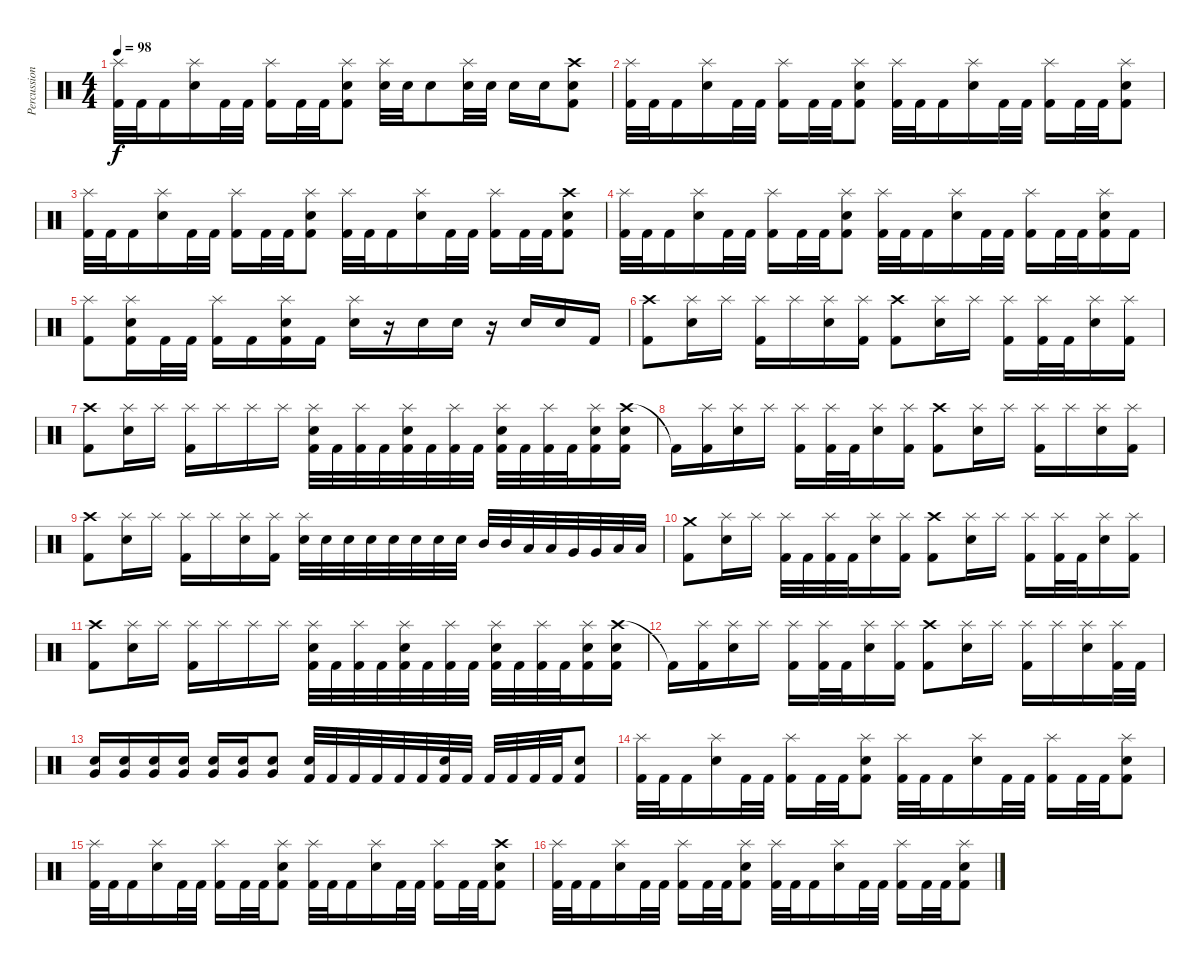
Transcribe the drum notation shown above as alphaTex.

\track ("Percussion" "Percussion") {instrument percussion}
\staff {score}
\articulation defaults
\ts (4 4)
\tempo 98
\clef neutral
\ks c
("Splash (hit)" "Kick (hit) 2").32{dy f} "Kick (hit) 2".32 "Kick (hit) 2".16 ("Splash (hit)" "Snare (hit) 2").16 "Kick (hit) 2".32 "Kick (hit) 2".32 ("Splash (hit)" "Kick (hit) 2").16 "Kick (hit) 2".32 "Kick (hit) 2".32 ("Splash (hit)" "Snare (hit) 2" "Kick (hit) 2").8 ("Splash (hit)" "Snare (hit) 2").32 "Snare (hit) 2".32 "Snare (hit) 2".8 ("Splash (hit)" "Snare (hit) 2").32 "Snare (hit) 2".32 "Snare (hit) 2".16 "Snare (hit) 2".16 ("Crash high (hit)" "Snare (hit) 2" "Kick (hit) 2").8 |
("Splash (hit)" "Kick (hit) 2").32 "Kick (hit) 2".32 "Kick (hit) 2".16 ("Splash (hit)" "Snare (hit) 2").16 "Kick (hit) 2".32 "Kick (hit) 2".32 ("Splash (hit)" "Kick (hit) 2").16 "Kick (hit) 2".32 "Kick (hit) 2".32 ("Splash (hit)" "Snare (hit) 2" "Kick (hit) 2").8 ("Splash (hit)" "Kick (hit) 2").32 "Kick (hit) 2".32 "Kick (hit) 2".16 ("Splash (hit)" "Snare (hit) 2").16 "Kick (hit) 2".32 "Kick (hit) 2".32 ("Splash (hit)" "Kick (hit) 2").16 "Kick (hit) 2".32 "Kick (hit) 2".32 ("Splash (hit)" "Snare (hit) 2" "Kick (hit) 2").8 |
("Splash (hit)" "Kick (hit) 2").32 "Kick (hit) 2".32 "Kick (hit) 2".16 ("Splash (hit)" "Snare (hit) 2").16 "Kick (hit) 2".32 "Kick (hit) 2".32 ("Splash (hit)" "Kick (hit) 2").16 "Kick (hit) 2".32 "Kick (hit) 2".32 ("Splash (hit)" "Snare (hit) 2" "Kick (hit) 2").8 ("Splash (hit)" "Kick (hit) 2").32 "Kick (hit) 2".32 "Kick (hit) 2".16 ("Splash (hit)" "Snare (hit) 2").16 "Kick (hit) 2".32 "Kick (hit) 2".32 ("Splash (hit)" "Kick (hit) 2").16 "Kick (hit) 2".32 "Kick (hit) 2".32 ("Crash high (hit)" "Snare (hit) 2" "Kick (hit) 2").8 |
("Splash (hit)" "Kick (hit) 2").32 "Kick (hit) 2".32 "Kick (hit) 2".16 ("Splash (hit)" "Snare (hit) 2").16 "Kick (hit) 2".32 "Kick (hit) 2".32 ("Splash (hit)" "Kick (hit) 2").16 "Kick (hit) 2".32 "Kick (hit) 2".32 ("Splash (hit)" "Snare (hit) 2" "Kick (hit) 2").8 ("Splash (hit)" "Kick (hit) 2").32 "Kick (hit) 2".32 "Kick (hit) 2".16 ("Splash (hit)" "Snare (hit) 2").16 "Kick (hit) 2".32 "Kick (hit) 2".32 ("Splash (hit)" "Kick (hit) 2").16 "Kick (hit) 2".32 "Kick (hit) 2".32 ("Splash (hit)" "Snare (hit) 2" "Kick (hit) 2").16 "Kick (hit) 2".16 |
("Splash (hit)" "Kick (hit) 2").8 ("Splash (hit)" "Snare (hit) 2" "Kick (hit) 2").16 "Kick (hit) 2".32 "Kick (hit) 2".32 ("Splash (hit)" "Kick (hit) 2").16 "Kick (hit) 2".16 ("Splash (hit)" "Snare (hit) 2" "Kick (hit) 2").16 "Kick (hit) 2".16 ("Splash (hit)" "Snare (hit) 2").16 r.16 "Snare (hit) 2".16 "Snare (hit) 2".16 r.16 "Snare (hit) 2".16 "Snare (hit) 2".16 "Kick (hit) 2".16 |
("Crash high (hit)" "Kick (hit) 2").8 ("Splash (hit)" "Snare (hit) 2").16 "Splash (hit)".16 ("Splash (hit)" "Kick (hit) 2").16 "Splash (hit)".16 ("Splash (hit)" "Snare (hit) 2").16 ("Splash (hit)" "Kick (hit) 2").16 ("Crash high (hit)" "Kick (hit) 2").8 ("Splash (hit)" "Snare (hit) 2").16 "Splash (hit)".16 ("Splash (hit)" "Kick (hit) 2").16 ("Splash (hit)" "Kick (hit) 2").32 "Kick (hit) 2".32 ("Splash (hit)" "Snare (hit) 2").16 ("Splash (hit)" "Kick (hit) 2").16 |
("Crash high (hit)" "Kick (hit) 2").8 ("Splash (hit)" "Snare (hit) 2").16 "Splash (hit)".16 ("Splash (hit)" "Kick (hit) 2").16 "Splash (hit)".16 "Splash (hit)".16 "Splash (hit)".16 ("Splash (hit)" "Snare (hit) 2" "Kick (hit) 2").32 "Kick (hit) 2".32 ("Splash (hit)" "Kick (hit) 2").32 "Kick (hit) 2".32 ("Splash (hit)" "Snare (hit) 2" "Kick (hit) 2").32 "Kick (hit) 2".32 ("Splash (hit)" "Kick (hit) 2").32 "Kick (hit) 2".32 ("Splash (hit)" "Snare (hit) 2" "Kick (hit) 2").32 "Kick (hit) 2".32 ("Splash (hit)" "Kick (hit) 2").32 "Kick (hit) 2".32 ("Splash (hit)" "Snare (hit) 2" "Kick (hit) 2").16 ("Crash high (hit)" "Snare (hit) 2" "Kick (hit) 2").16 |
"Kick (hit) 2"{t}.16 ("Splash (hit)" "Kick (hit) 2").16 ("Splash (hit)" "Snare (hit) 2").16 "Splash (hit)".16 ("Splash (hit)" "Kick (hit) 2").16 ("Splash (hit)" "Kick (hit) 2").32 "Kick (hit) 2".32 ("Splash (hit)" "Snare (hit) 2").16 ("Splash (hit)" "Kick (hit) 2").16 ("Crash high (hit)" "Kick (hit) 2").8 ("Splash (hit)" "Snare (hit) 2").16 "Splash (hit)".16 ("Splash (hit)" "Kick (hit) 2").16 "Splash (hit)".16 ("Splash (hit)" "Snare (hit) 2").16 ("Splash (hit)" "Kick (hit) 2").16 |
("Crash high (hit)" "Kick (hit) 2").8 ("Splash (hit)" "Snare (hit) 2").16 "Splash (hit)".16 ("Splash (hit)" "Kick (hit) 2").16 "Splash (hit)".16 ("Splash (hit)" "Snare (hit) 2").16 ("Splash (hit)" "Kick (hit) 2").16 ("Splash (hit)" "Snare (hit) 2").32 "Snare (hit) 2".32 "Snare (hit) 2".32 "Snare (hit) 2".32 "Snare (hit) 2".32 "Snare (hit) 2".32 "Snare (hit) 2".32 "Snare (hit) 2".32 "Mid Tom (hit)".32 "Mid Tom (hit)".32 "Low Tom (hit)".32 "Low Tom (hit)".32 "Very Low Tom (hit)".32 "Very Low Tom (hit)".32 "Low Floor Tom (hit)".32 "Low Floor Tom (hit)".32 |
("Crash medium (hit)" "Kick (hit) 2").8 ("Splash (hit)" "Snare (hit) 2").16 "Splash (hit)".16 ("Splash (hit)" "Kick (hit) 2").32 "Kick (hit) 2".32 ("Splash (hit)" "Kick (hit) 2").32 "Kick (hit) 2".32 ("Splash (hit)" "Snare (hit) 2").16 ("Splash (hit)" "Kick (hit) 2").16 ("Crash high (hit)" "Kick (hit) 2").8 ("Splash (hit)" "Snare (hit) 2").16 "Splash (hit)".16 ("Splash (hit)" "Kick (hit) 2").16 ("Splash (hit)" "Kick (hit) 2").32 "Kick (hit) 2".32 ("Splash (hit)" "Snare (hit) 2").16 ("Splash (hit)" "Kick (hit) 2").16 |
("Crash high (hit)" "Kick (hit) 2").8 ("Splash (hit)" "Snare (hit) 2").16 "Splash (hit)".16 ("Splash (hit)" "Kick (hit) 2").16 "Splash (hit)".16 "Splash (hit)".16 "Splash (hit)".16 ("Splash (hit)" "Snare (hit) 2" "Kick (hit) 2").32 "Kick (hit) 2".32 ("Splash (hit)" "Kick (hit) 2").32 "Kick (hit) 2".32 ("Splash (hit)" "Snare (hit) 2" "Kick (hit) 2").32 "Kick (hit) 2".32 ("Splash (hit)" "Kick (hit) 2").32 "Kick (hit) 2".32 ("Splash (hit)" "Snare (hit) 2" "Kick (hit) 2").32 "Kick (hit) 2".32 ("Splash (hit)" "Kick (hit) 2").32 "Kick (hit) 2".32 ("Splash (hit)" "Snare (hit) 2" "Kick (hit) 2").16 ("Crash high (hit)" "Snare (hit) 2" "Kick (hit) 2").16 |
"Kick (hit) 2"{t}.16 ("Splash (hit)" "Kick (hit) 2").16 ("Splash (hit)" "Snare (hit) 2").16 "Splash (hit)".16 ("Splash (hit)" "Kick (hit) 2").16 ("Splash (hit)" "Kick (hit) 2").32 "Kick (hit) 2".32 ("Splash (hit)" "Snare (hit) 2").16 ("Splash (hit)" "Kick (hit) 2").16 ("Crash high (hit)" "Kick (hit) 2").8 ("Splash (hit)" "Snare (hit) 2").16 "Splash (hit)".16 ("Splash (hit)" "Kick (hit) 2").16 "Splash (hit)".16 ("Splash (hit)" "Snare (hit) 2").16 ("Splash (hit)" "Kick (hit) 2").32 "Kick (hit) 2".32 |
("Snare (hit) 2" "Very Low Tom (hit)").16 ("Snare (hit) 2" "Very Low Tom (hit)").16 ("Snare (hit) 2" "Very Low Tom (hit)").16 ("Snare (hit) 2" "Very Low Tom (hit)").16 ("Snare (hit) 2" "Very Low Tom (hit)").16 ("Snare (hit) 2" "Very Low Tom (hit)").16 ("Snare (hit) 2" "Very Low Tom (hit)").8 ("Snare (hit) 2" "Kick (hit) 2").32 "Kick (hit) 2".32 "Kick (hit) 2".32 "Kick (hit) 2".32 "Kick (hit) 2".32 "Kick (hit) 2".32 ("Snare (hit) 2" "Kick (hit) 2").32 "Kick (hit) 2".32 "Kick (hit) 2".32 "Kick (hit) 2".32 "Kick (hit) 2".32 "Kick (hit) 2".32 ("Snare (hit) 2" "Kick (hit) 2").8 |
("Splash (hit)" "Kick (hit) 2").32 "Kick (hit) 2".32 "Kick (hit) 2".16 ("Splash (hit)" "Snare (hit) 2").16 "Kick (hit) 2".32 "Kick (hit) 2".32 ("Splash (hit)" "Kick (hit) 2").16 "Kick (hit) 2".32 "Kick (hit) 2".32 ("Splash (hit)" "Snare (hit) 2" "Kick (hit) 2").8 ("Splash (hit)" "Kick (hit) 2").32 "Kick (hit) 2".32 "Kick (hit) 2".16 ("Splash (hit)" "Snare (hit) 2").16 "Kick (hit) 2".32 "Kick (hit) 2".32 ("Splash (hit)" "Kick (hit) 2").16 "Kick (hit) 2".32 "Kick (hit) 2".32 ("Splash (hit)" "Snare (hit) 2" "Kick (hit) 2").8 |
("Splash (hit)" "Kick (hit) 2").32 "Kick (hit) 2".32 "Kick (hit) 2".16 ("Splash (hit)" "Snare (hit) 2").16 "Kick (hit) 2".32 "Kick (hit) 2".32 ("Splash (hit)" "Kick (hit) 2").16 "Kick (hit) 2".32 "Kick (hit) 2".32 ("Splash (hit)" "Snare (hit) 2" "Kick (hit) 2").8 ("Splash (hit)" "Kick (hit) 2").32 "Kick (hit) 2".32 "Kick (hit) 2".16 ("Splash (hit)" "Snare (hit) 2").16 "Kick (hit) 2".32 "Kick (hit) 2".32 ("Splash (hit)" "Kick (hit) 2").16 "Kick (hit) 2".32 "Kick (hit) 2".32 ("Crash high (hit)" "Snare (hit) 2" "Kick (hit) 2").8 |
("Splash (hit)" "Kick (hit) 2").32 "Kick (hit) 2".32 "Kick (hit) 2".16 ("Splash (hit)" "Snare (hit) 2").16 "Kick (hit) 2".32 "Kick (hit) 2".32 ("Splash (hit)" "Kick (hit) 2").16 "Kick (hit) 2".32 "Kick (hit) 2".32 ("Splash (hit)" "Snare (hit) 2" "Kick (hit) 2").8 ("Splash (hit)" "Kick (hit) 2").32 "Kick (hit) 2".32 "Kick (hit) 2".16 ("Splash (hit)" "Snare (hit) 2").16 "Kick (hit) 2".32 "Kick (hit) 2".32 ("Splash (hit)" "Kick (hit) 2").16 "Kick (hit) 2".32 "Kick (hit) 2".32 ("Splash (hit)" "Snare (hit) 2" "Kick (hit) 2").8
